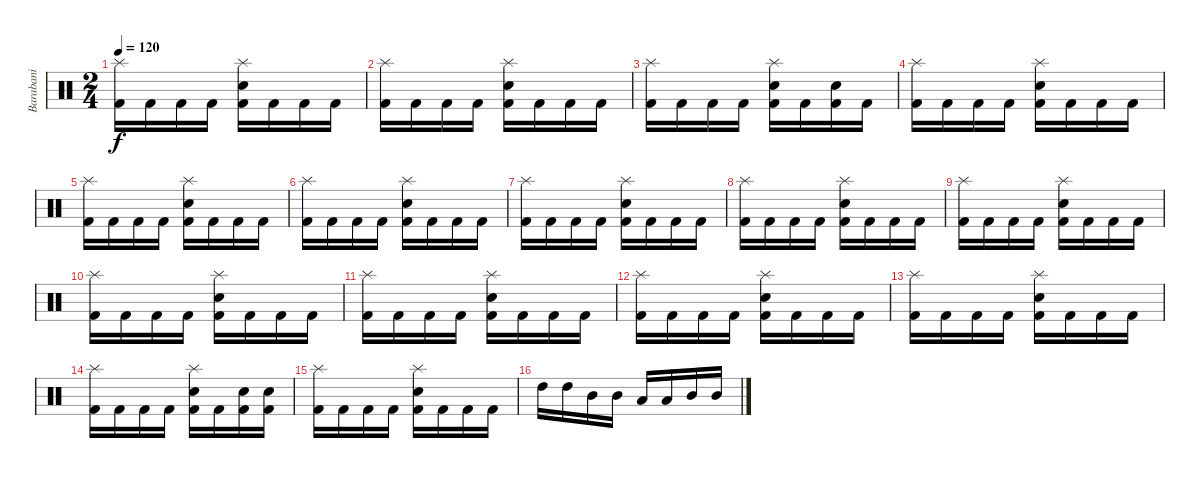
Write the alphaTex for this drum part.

\track ("Barabani" "Barabani") {instrument percussion}
\staff {score}
\articulation defaults
\ts (2 4)
\tempo 120
\clef neutral
\ks c
("Splash (hit)" "Kick (hit) 2").16{dy f} "Kick (hit) 2".16 "Kick (hit) 2".16 "Kick (hit) 2".16 ("Splash (hit)" "Electric Snare (hit)" "Kick (hit) 2").16 "Kick (hit) 2".16 "Kick (hit) 2".16 "Kick (hit) 2".16 |
("Splash (hit)" "Kick (hit) 2").16 "Kick (hit) 2".16 "Kick (hit) 2".16 "Kick (hit) 2".16 ("Splash (hit)" "Electric Snare (hit)" "Kick (hit) 2").16 "Kick (hit) 2".16 "Kick (hit) 2".16 "Kick (hit) 2".16 |
("Splash (hit)" "Kick (hit) 2").16 "Kick (hit) 2".16 "Kick (hit) 2".16 "Kick (hit) 2".16 ("Splash (hit)" "Electric Snare (hit)" "Kick (hit) 2").16 "Kick (hit) 2".16 ("Electric Snare (hit)" "Kick (hit) 2").16 "Kick (hit) 2".16 |
("Splash (hit)" "Kick (hit) 2").16 "Kick (hit) 2".16 "Kick (hit) 2".16 "Kick (hit) 2".16 ("Splash (hit)" "Electric Snare (hit)" "Kick (hit) 2").16 "Kick (hit) 2".16 "Kick (hit) 2".16 "Kick (hit) 2".16 |
("Splash (hit)" "Kick (hit) 2").16 "Kick (hit) 2".16 "Kick (hit) 2".16 "Kick (hit) 2".16 ("Splash (hit)" "Electric Snare (hit)" "Kick (hit) 2").16 "Kick (hit) 2".16 "Kick (hit) 2".16 "Kick (hit) 2".16 |
("Splash (hit)" "Kick (hit) 2").16 "Kick (hit) 2".16 "Kick (hit) 2".16 "Kick (hit) 2".16 ("Splash (hit)" "Electric Snare (hit)" "Kick (hit) 2").16 "Kick (hit) 2".16 "Kick (hit) 2".16 "Kick (hit) 2".16 |
("Splash (hit)" "Kick (hit) 2").16 "Kick (hit) 2".16 "Kick (hit) 2".16 "Kick (hit) 2".16 ("Splash (hit)" "Electric Snare (hit)" "Kick (hit) 2").16 "Kick (hit) 2".16 "Kick (hit) 2".16 "Kick (hit) 2".16 |
("Splash (hit)" "Kick (hit) 2").16 "Kick (hit) 2".16 "Kick (hit) 2".16 "Kick (hit) 2".16 ("Splash (hit)" "Electric Snare (hit)" "Kick (hit) 2").16 "Kick (hit) 2".16 "Kick (hit) 2".16 "Kick (hit) 2".16 |
("Splash (hit)" "Kick (hit) 2").16 "Kick (hit) 2".16 "Kick (hit) 2".16 "Kick (hit) 2".16 ("Splash (hit)" "Electric Snare (hit)" "Kick (hit) 2").16 "Kick (hit) 2".16 "Kick (hit) 2".16 "Kick (hit) 2".16 |
("Splash (hit)" "Kick (hit) 2").16 "Kick (hit) 2".16 "Kick (hit) 2".16 "Kick (hit) 2".16 ("Splash (hit)" "Electric Snare (hit)" "Kick (hit) 2").16 "Kick (hit) 2".16 "Kick (hit) 2".16 "Kick (hit) 2".16 |
("Splash (hit)" "Kick (hit) 2").16 "Kick (hit) 2".16 "Kick (hit) 2".16 "Kick (hit) 2".16 ("Splash (hit)" "Electric Snare (hit)" "Kick (hit) 2").16 "Kick (hit) 2".16 "Kick (hit) 2".16 "Kick (hit) 2".16 |
("Splash (hit)" "Kick (hit) 2").16 "Kick (hit) 2".16 "Kick (hit) 2".16 "Kick (hit) 2".16 ("Splash (hit)" "Electric Snare (hit)" "Kick (hit) 2").16 "Kick (hit) 2".16 "Kick (hit) 2".16 "Kick (hit) 2".16 |
("Splash (hit)" "Kick (hit) 2").16 "Kick (hit) 2".16 "Kick (hit) 2".16 "Kick (hit) 2".16 ("Splash (hit)" "Electric Snare (hit)" "Kick (hit) 2").16 "Kick (hit) 2".16 "Kick (hit) 2".16 "Kick (hit) 2".16 |
("Splash (hit)" "Kick (hit) 2").16 "Kick (hit) 2".16 "Kick (hit) 2".16 "Kick (hit) 2".16 ("Splash (hit)" "Electric Snare (hit)" "Kick (hit) 2").16 "Kick (hit) 2".16 ("Electric Snare (hit)" "Kick (hit) 2").16 ("Electric Snare (hit)" "Kick (hit) 2").16 |
("Splash (hit)" "Kick (hit) 2").16 "Kick (hit) 2".16 "Kick (hit) 2".16 "Kick (hit) 2".16 ("Splash (hit)" "Electric Snare (hit)" "Kick (hit) 2").16 "Kick (hit) 2".16 "Kick (hit) 2".16 "Kick (hit) 2".16 |
"High Tom (hit)".16 "High Tom (hit)".16 "Mid Tom (hit)".16 "Mid Tom (hit)".16 "Low Tom (hit)".16 "Low Tom (hit)".16 "Mid Tom (hit)".16 "Mid Tom (hit)".16
